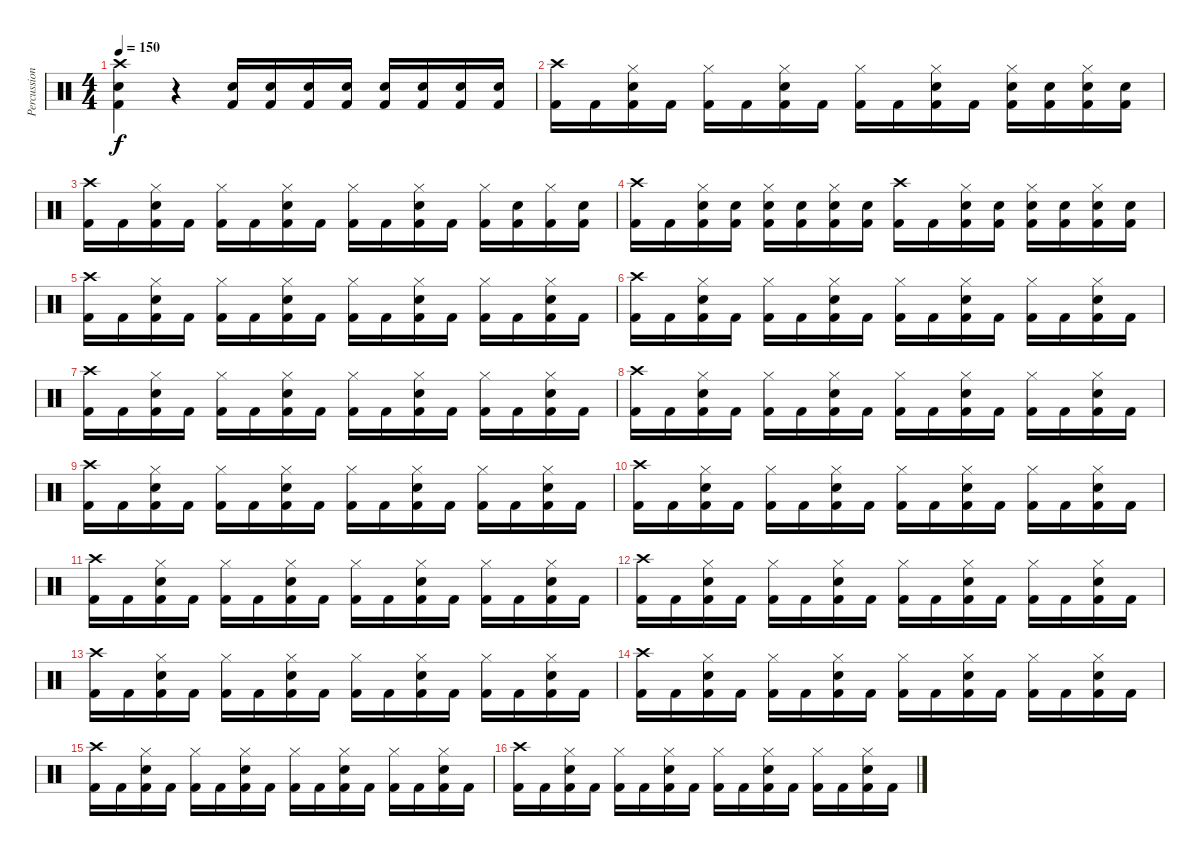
\track ("Percussion" "Percussion") {instrument percussion}
\staff {score}
\articulation defaults
\ts (4 4)
\tempo 150
\clef neutral
\ks c
("Crash high (hit)" "Snare (hit) 2" "Kick (hit) 2").4{dy f} r.4 ("Snare (hit) 2" "Kick (hit) 2").16 ("Snare (hit) 2" "Kick (hit) 2").16 ("Snare (hit) 2" "Kick (hit) 2").16 ("Snare (hit) 2" "Kick (hit) 2").16 ("Snare (hit) 2" "Kick (hit) 2").16 ("Snare (hit) 2" "Kick (hit) 2").16 ("Snare (hit) 2" "Kick (hit) 2").16 ("Snare (hit) 2" "Kick (hit) 2").16 |
("Crash high (hit)" "Kick (hit) 2").16 "Kick (hit) 2".16 ("Hi-Hat (closed)" "Snare (hit) 2" "Kick (hit) 2").16 "Kick (hit) 2".16 ("Hi-Hat (closed)" "Kick (hit) 2").16 "Kick (hit) 2".16 ("Hi-Hat (closed)" "Snare (hit) 2" "Kick (hit) 2").16 "Kick (hit) 2".16 ("Hi-Hat (closed)" "Kick (hit) 2").16 "Kick (hit) 2".16 ("Hi-Hat (closed)" "Snare (hit) 2" "Kick (hit) 2").16 "Kick (hit) 2".16 ("Hi-Hat (closed)" "Snare (hit) 2" "Kick (hit) 2").16 ("Snare (hit) 2" "Kick (hit) 2").16 ("Hi-Hat (closed)" "Snare (hit) 2" "Kick (hit) 2").16 ("Snare (hit) 2" "Kick (hit) 2").16 |
("Crash high (hit)" "Kick (hit) 2").16 "Kick (hit) 2".16 ("Hi-Hat (closed)" "Snare (hit) 2" "Kick (hit) 2").16 "Kick (hit) 2".16 ("Hi-Hat (closed)" "Kick (hit) 2").16 "Kick (hit) 2".16 ("Hi-Hat (closed)" "Snare (hit) 2" "Kick (hit) 2").16 "Kick (hit) 2".16 ("Hi-Hat (closed)" "Kick (hit) 2").16 "Kick (hit) 2".16 ("Hi-Hat (closed)" "Snare (hit) 2" "Kick (hit) 2").16 "Kick (hit) 2".16 ("Hi-Hat (closed)" "Kick (hit) 2").16 ("Snare (hit) 2" "Kick (hit) 2").16 ("Hi-Hat (closed)" "Kick (hit) 2").16 ("Snare (hit) 2" "Kick (hit) 2").16 |
("Crash high (hit)" "Kick (hit) 2").16 "Kick (hit) 2".16 ("Hi-Hat (closed)" "Snare (hit) 2" "Kick (hit) 2").16 ("Snare (hit) 2" "Kick (hit) 2").16 ("Hi-Hat (closed)" "Snare (hit) 2" "Kick (hit) 2").16 ("Snare (hit) 2" "Kick (hit) 2").16 ("Hi-Hat (closed)" "Snare (hit) 2" "Kick (hit) 2").16 ("Snare (hit) 2" "Kick (hit) 2").16 ("Crash high (hit)" "Kick (hit) 2").16 "Kick (hit) 2".16 ("Hi-Hat (closed)" "Snare (hit) 2" "Kick (hit) 2").16 ("Snare (hit) 2" "Kick (hit) 2").16 ("Hi-Hat (closed)" "Snare (hit) 2" "Kick (hit) 2").16 ("Snare (hit) 2" "Kick (hit) 2").16 ("Hi-Hat (closed)" "Snare (hit) 2" "Kick (hit) 2").16 ("Snare (hit) 2" "Kick (hit) 2").16 |
("Crash high (hit)" "Kick (hit) 2").16 "Kick (hit) 2".16 ("Hi-Hat (closed)" "Snare (hit) 2" "Kick (hit) 2").16 "Kick (hit) 2".16 ("Hi-Hat (closed)" "Kick (hit) 2").16 "Kick (hit) 2".16 ("Hi-Hat (closed)" "Snare (hit) 2" "Kick (hit) 2").16 "Kick (hit) 2".16 ("Hi-Hat (closed)" "Kick (hit) 2").16 "Kick (hit) 2".16 ("Hi-Hat (closed)" "Snare (hit) 2" "Kick (hit) 2").16 "Kick (hit) 2".16 ("Hi-Hat (closed)" "Kick (hit) 2").16 "Kick (hit) 2".16 ("Hi-Hat (closed)" "Snare (hit) 2" "Kick (hit) 2").16 "Kick (hit) 2".16 |
("Crash high (hit)" "Kick (hit) 2").16 "Kick (hit) 2".16 ("Hi-Hat (closed)" "Snare (hit) 2" "Kick (hit) 2").16 "Kick (hit) 2".16 ("Hi-Hat (closed)" "Kick (hit) 2").16 "Kick (hit) 2".16 ("Hi-Hat (closed)" "Snare (hit) 2" "Kick (hit) 2").16 "Kick (hit) 2".16 ("Hi-Hat (closed)" "Kick (hit) 2").16 "Kick (hit) 2".16 ("Hi-Hat (closed)" "Snare (hit) 2" "Kick (hit) 2").16 "Kick (hit) 2".16 ("Hi-Hat (closed)" "Kick (hit) 2").16 "Kick (hit) 2".16 ("Hi-Hat (closed)" "Snare (hit) 2" "Kick (hit) 2").16 "Kick (hit) 2".16 |
("Crash high (hit)" "Kick (hit) 2").16 "Kick (hit) 2".16 ("Hi-Hat (closed)" "Snare (hit) 2" "Kick (hit) 2").16 "Kick (hit) 2".16 ("Hi-Hat (closed)" "Kick (hit) 2").16 "Kick (hit) 2".16 ("Hi-Hat (closed)" "Snare (hit) 2" "Kick (hit) 2").16 "Kick (hit) 2".16 ("Hi-Hat (closed)" "Kick (hit) 2").16 "Kick (hit) 2".16 ("Hi-Hat (closed)" "Snare (hit) 2" "Kick (hit) 2").16 "Kick (hit) 2".16 ("Hi-Hat (closed)" "Kick (hit) 2").16 "Kick (hit) 2".16 ("Hi-Hat (closed)" "Snare (hit) 2" "Kick (hit) 2").16 "Kick (hit) 2".16 |
("Crash high (hit)" "Kick (hit) 2").16 "Kick (hit) 2".16 ("Hi-Hat (closed)" "Snare (hit) 2" "Kick (hit) 2").16 "Kick (hit) 2".16 ("Hi-Hat (closed)" "Kick (hit) 2").16 "Kick (hit) 2".16 ("Hi-Hat (closed)" "Snare (hit) 2" "Kick (hit) 2").16 "Kick (hit) 2".16 ("Hi-Hat (closed)" "Kick (hit) 2").16 "Kick (hit) 2".16 ("Hi-Hat (closed)" "Snare (hit) 2" "Kick (hit) 2").16 "Kick (hit) 2".16 ("Hi-Hat (closed)" "Kick (hit) 2").16 "Kick (hit) 2".16 ("Hi-Hat (closed)" "Snare (hit) 2" "Kick (hit) 2").16 "Kick (hit) 2".16 |
("Crash high (hit)" "Kick (hit) 2").16 "Kick (hit) 2".16 ("Hi-Hat (closed)" "Snare (hit) 2" "Kick (hit) 2").16 "Kick (hit) 2".16 ("Hi-Hat (closed)" "Kick (hit) 2").16 "Kick (hit) 2".16 ("Hi-Hat (closed)" "Snare (hit) 2" "Kick (hit) 2").16 "Kick (hit) 2".16 ("Hi-Hat (closed)" "Kick (hit) 2").16 "Kick (hit) 2".16 ("Hi-Hat (closed)" "Snare (hit) 2" "Kick (hit) 2").16 "Kick (hit) 2".16 ("Hi-Hat (closed)" "Kick (hit) 2").16 "Kick (hit) 2".16 ("Hi-Hat (closed)" "Snare (hit) 2" "Kick (hit) 2").16 "Kick (hit) 2".16 |
("Crash high (hit)" "Kick (hit) 2").16 "Kick (hit) 2".16 ("Hi-Hat (closed)" "Snare (hit) 2" "Kick (hit) 2").16 "Kick (hit) 2".16 ("Hi-Hat (closed)" "Kick (hit) 2").16 "Kick (hit) 2".16 ("Hi-Hat (closed)" "Snare (hit) 2" "Kick (hit) 2").16 "Kick (hit) 2".16 ("Hi-Hat (closed)" "Kick (hit) 2").16 "Kick (hit) 2".16 ("Hi-Hat (closed)" "Snare (hit) 2" "Kick (hit) 2").16 "Kick (hit) 2".16 ("Hi-Hat (closed)" "Kick (hit) 2").16 "Kick (hit) 2".16 ("Hi-Hat (closed)" "Snare (hit) 2" "Kick (hit) 2").16 "Kick (hit) 2".16 |
("Crash high (hit)" "Kick (hit) 2").16 "Kick (hit) 2".16 ("Hi-Hat (closed)" "Snare (hit) 2" "Kick (hit) 2").16 "Kick (hit) 2".16 ("Hi-Hat (closed)" "Kick (hit) 2").16 "Kick (hit) 2".16 ("Hi-Hat (closed)" "Snare (hit) 2" "Kick (hit) 2").16 "Kick (hit) 2".16 ("Hi-Hat (closed)" "Kick (hit) 2").16 "Kick (hit) 2".16 ("Hi-Hat (closed)" "Snare (hit) 2" "Kick (hit) 2").16 "Kick (hit) 2".16 ("Hi-Hat (closed)" "Kick (hit) 2").16 "Kick (hit) 2".16 ("Hi-Hat (closed)" "Snare (hit) 2" "Kick (hit) 2").16 "Kick (hit) 2".16 |
("Crash high (hit)" "Kick (hit) 2").16 "Kick (hit) 2".16 ("Hi-Hat (closed)" "Snare (hit) 2" "Kick (hit) 2").16 "Kick (hit) 2".16 ("Hi-Hat (closed)" "Kick (hit) 2").16 "Kick (hit) 2".16 ("Hi-Hat (closed)" "Snare (hit) 2" "Kick (hit) 2").16 "Kick (hit) 2".16 ("Hi-Hat (closed)" "Kick (hit) 2").16 "Kick (hit) 2".16 ("Hi-Hat (closed)" "Snare (hit) 2" "Kick (hit) 2").16 "Kick (hit) 2".16 ("Hi-Hat (closed)" "Kick (hit) 2").16 "Kick (hit) 2".16 ("Hi-Hat (closed)" "Snare (hit) 2" "Kick (hit) 2").16 "Kick (hit) 2".16 |
("Crash high (hit)" "Kick (hit) 2").16 "Kick (hit) 2".16 ("Hi-Hat (closed)" "Snare (hit) 2" "Kick (hit) 2").16 "Kick (hit) 2".16 ("Hi-Hat (closed)" "Kick (hit) 2").16 "Kick (hit) 2".16 ("Hi-Hat (closed)" "Snare (hit) 2" "Kick (hit) 2").16 "Kick (hit) 2".16 ("Hi-Hat (closed)" "Kick (hit) 2").16 "Kick (hit) 2".16 ("Hi-Hat (closed)" "Snare (hit) 2" "Kick (hit) 2").16 "Kick (hit) 2".16 ("Hi-Hat (closed)" "Kick (hit) 2").16 "Kick (hit) 2".16 ("Hi-Hat (closed)" "Snare (hit) 2" "Kick (hit) 2").16 "Kick (hit) 2".16 |
("Crash high (hit)" "Kick (hit) 2").16 "Kick (hit) 2".16 ("Hi-Hat (closed)" "Snare (hit) 2" "Kick (hit) 2").16 "Kick (hit) 2".16 ("Hi-Hat (closed)" "Kick (hit) 2").16 "Kick (hit) 2".16 ("Hi-Hat (closed)" "Snare (hit) 2" "Kick (hit) 2").16 "Kick (hit) 2".16 ("Hi-Hat (closed)" "Kick (hit) 2").16 "Kick (hit) 2".16 ("Hi-Hat (closed)" "Snare (hit) 2" "Kick (hit) 2").16 "Kick (hit) 2".16 ("Hi-Hat (closed)" "Kick (hit) 2").16 "Kick (hit) 2".16 ("Hi-Hat (closed)" "Snare (hit) 2" "Kick (hit) 2").16 "Kick (hit) 2".16 |
("Crash high (hit)" "Kick (hit) 2").16 "Kick (hit) 2".16 ("Hi-Hat (closed)" "Snare (hit) 2" "Kick (hit) 2").16 "Kick (hit) 2".16 ("Hi-Hat (closed)" "Kick (hit) 2").16 "Kick (hit) 2".16 ("Hi-Hat (closed)" "Snare (hit) 2" "Kick (hit) 2").16 "Kick (hit) 2".16 ("Hi-Hat (closed)" "Kick (hit) 2").16 "Kick (hit) 2".16 ("Hi-Hat (closed)" "Snare (hit) 2" "Kick (hit) 2").16 "Kick (hit) 2".16 ("Hi-Hat (closed)" "Kick (hit) 2").16 "Kick (hit) 2".16 ("Hi-Hat (closed)" "Snare (hit) 2" "Kick (hit) 2").16 "Kick (hit) 2".16 |
("Crash high (hit)" "Kick (hit) 2").16 "Kick (hit) 2".16 ("Hi-Hat (closed)" "Snare (hit) 2" "Kick (hit) 2").16 "Kick (hit) 2".16 ("Hi-Hat (closed)" "Kick (hit) 2").16 "Kick (hit) 2".16 ("Hi-Hat (closed)" "Snare (hit) 2" "Kick (hit) 2").16 "Kick (hit) 2".16 ("Hi-Hat (closed)" "Kick (hit) 2").16 "Kick (hit) 2".16 ("Hi-Hat (closed)" "Snare (hit) 2" "Kick (hit) 2").16 "Kick (hit) 2".16 ("Hi-Hat (closed)" "Kick (hit) 2").16 "Kick (hit) 2".16 ("Hi-Hat (closed)" "Snare (hit) 2" "Kick (hit) 2").16 "Kick (hit) 2".16
